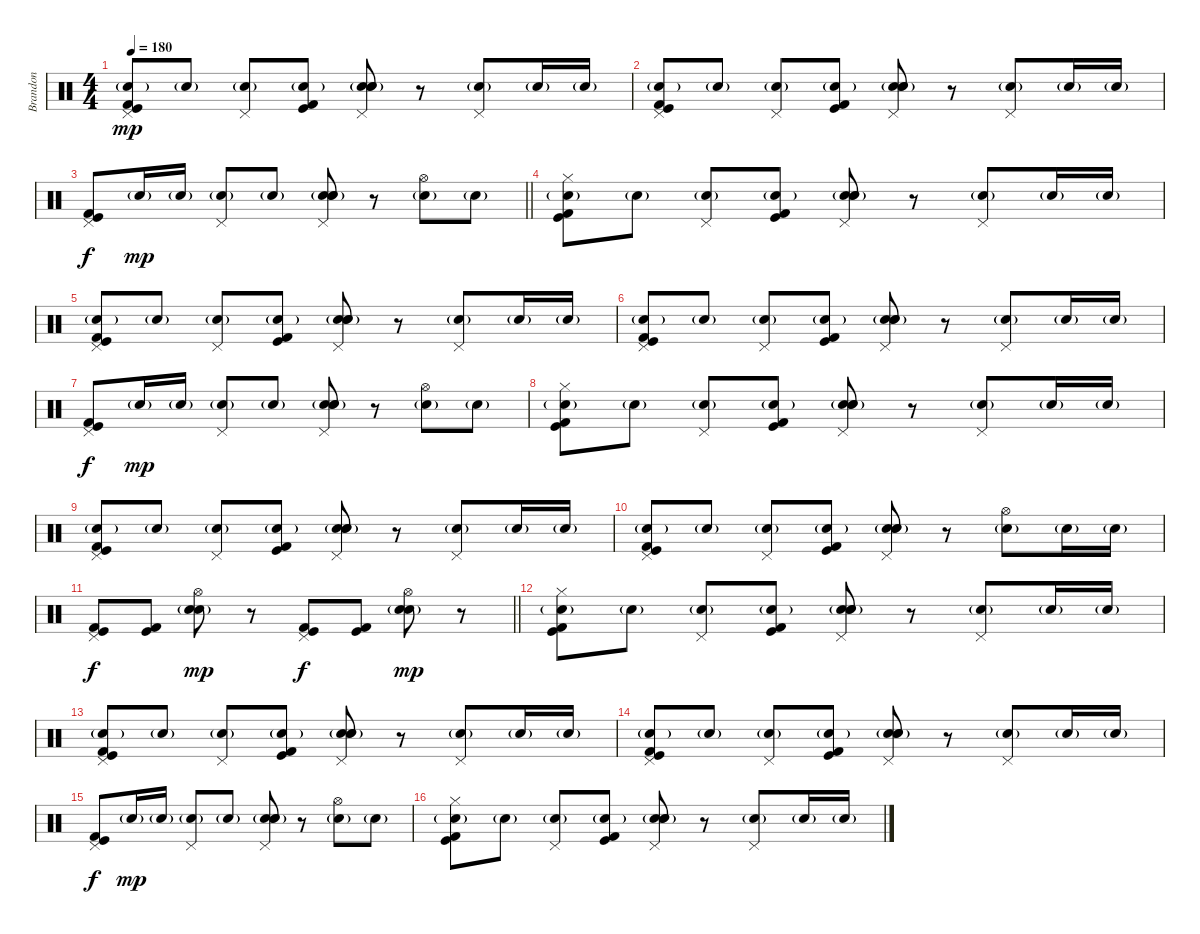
\track ("Brandon" "Brandon") {instrument percussion}
\staff {score}
\articulation defaults
\ts (4 4)
\tempo 180
\clef neutral
\ks c
("Pedal Hi-Hat (hit)" "Snare (hit) 2"{g} "Kick (hit)" "Kick (hit) 2").8{dy mp} "Snare (hit) 2"{g}.8 ("Pedal Hi-Hat (hit)" "Snare (hit) 2"{g}).8 ("Snare (hit) 2"{g} "Kick (hit)" "Kick (hit) 2").8 ("Pedal Hi-Hat (hit)" "Electric Snare (hit)" "Snare (hit) 2" "Snare (hit) 2"{g}).8 r.8 ("Pedal Hi-Hat (hit)" "Snare (hit) 2"{g}).8 "Snare (hit) 2"{g}.16 "Snare (hit) 2"{g}.16 |
("Pedal Hi-Hat (hit)" "Snare (hit) 2"{g} "Kick (hit)" "Kick (hit) 2").8 "Snare (hit) 2"{g}.8 ("Pedal Hi-Hat (hit)" "Snare (hit) 2"{g}).8 ("Snare (hit) 2"{g} "Kick (hit)" "Kick (hit) 2").8 ("Pedal Hi-Hat (hit)" "Electric Snare (hit)" "Snare (hit) 2" "Snare (hit) 2"{g}).8 r.8 ("Pedal Hi-Hat (hit)" "Snare (hit) 2"{g}).8 "Snare (hit) 2"{g}.16 "Snare (hit) 2"{g}.16 |
\barLineRight lightlight
("Pedal Hi-Hat (hit)" "Kick (hit)" "Kick (hit) 2").8{dy f} "Snare (hit) 2"{g}.16{dy mp} "Snare (hit) 2"{g}.16 ("Pedal Hi-Hat (hit)" "Snare (hit) 2"{g}).8 "Snare (hit) 2"{g}.8 ("Pedal Hi-Hat (hit)" "Electric Snare (hit)" "Snare (hit) 2" "Snare (hit) 2"{g}).8 r.8 ("Hi-Hat (open)" "Snare (hit) 2"{g}).8 "Snare (hit) 2"{g}.8 |
("Hi-Hat (closed)" "Snare (hit) 2"{g} "Kick (hit)" "Kick (hit) 2").8 "Snare (hit) 2"{g}.8 ("Pedal Hi-Hat (hit)" "Snare (hit) 2"{g}).8 ("Snare (hit) 2"{g} "Kick (hit)" "Kick (hit) 2").8 ("Pedal Hi-Hat (hit)" "Electric Snare (hit)" "Snare (hit) 2" "Snare (hit) 2"{g}).8 r.8 ("Pedal Hi-Hat (hit)" "Snare (hit) 2"{g}).8 "Snare (hit) 2"{g}.16 "Snare (hit) 2"{g}.16 |
("Pedal Hi-Hat (hit)" "Snare (hit) 2"{g} "Kick (hit)" "Kick (hit) 2").8 "Snare (hit) 2"{g}.8 ("Pedal Hi-Hat (hit)" "Snare (hit) 2"{g}).8 ("Snare (hit) 2"{g} "Kick (hit)" "Kick (hit) 2").8 ("Pedal Hi-Hat (hit)" "Electric Snare (hit)" "Snare (hit) 2" "Snare (hit) 2"{g}).8 r.8 ("Pedal Hi-Hat (hit)" "Snare (hit) 2"{g}).8 "Snare (hit) 2"{g}.16 "Snare (hit) 2"{g}.16 |
("Pedal Hi-Hat (hit)" "Snare (hit) 2"{g} "Kick (hit)" "Kick (hit) 2").8 "Snare (hit) 2"{g}.8 ("Pedal Hi-Hat (hit)" "Snare (hit) 2"{g}).8 ("Snare (hit) 2"{g} "Kick (hit)" "Kick (hit) 2").8 ("Pedal Hi-Hat (hit)" "Electric Snare (hit)" "Snare (hit) 2" "Snare (hit) 2"{g}).8 r.8 ("Pedal Hi-Hat (hit)" "Snare (hit) 2"{g}).8 "Snare (hit) 2"{g}.16 "Snare (hit) 2"{g}.16 |
("Pedal Hi-Hat (hit)" "Kick (hit)" "Kick (hit) 2").8{dy f} "Snare (hit) 2"{g}.16{dy mp} "Snare (hit) 2"{g}.16 ("Pedal Hi-Hat (hit)" "Snare (hit) 2"{g}).8 "Snare (hit) 2"{g}.8 ("Pedal Hi-Hat (hit)" "Electric Snare (hit)" "Snare (hit) 2" "Snare (hit) 2"{g}).8 r.8 ("Hi-Hat (open)" "Snare (hit) 2"{g}).8 "Snare (hit) 2"{g}.8 |
("Hi-Hat (closed)" "Snare (hit) 2"{g} "Kick (hit)" "Kick (hit) 2").8 "Snare (hit) 2"{g}.8 ("Pedal Hi-Hat (hit)" "Snare (hit) 2"{g}).8 ("Snare (hit) 2"{g} "Kick (hit)" "Kick (hit) 2").8 ("Pedal Hi-Hat (hit)" "Electric Snare (hit)" "Snare (hit) 2" "Snare (hit) 2"{g}).8 r.8 ("Pedal Hi-Hat (hit)" "Snare (hit) 2"{g}).8 "Snare (hit) 2"{g}.16 "Snare (hit) 2"{g}.16 |
("Pedal Hi-Hat (hit)" "Snare (hit) 2"{g} "Kick (hit)" "Kick (hit) 2").8 "Snare (hit) 2"{g}.8 ("Pedal Hi-Hat (hit)" "Snare (hit) 2"{g}).8 ("Snare (hit) 2"{g} "Kick (hit)" "Kick (hit) 2").8 ("Pedal Hi-Hat (hit)" "Electric Snare (hit)" "Snare (hit) 2" "Snare (hit) 2"{g}).8 r.8 ("Pedal Hi-Hat (hit)" "Snare (hit) 2"{g}).8 "Snare (hit) 2"{g}.16 "Snare (hit) 2"{g}.16 |
("Pedal Hi-Hat (hit)" "Snare (hit) 2"{g} "Kick (hit)" "Kick (hit) 2").8 "Snare (hit) 2"{g}.8 ("Pedal Hi-Hat (hit)" "Snare (hit) 2"{g}).8 ("Snare (hit) 2"{g} "Kick (hit)" "Kick (hit) 2").8 ("Pedal Hi-Hat (hit)" "Electric Snare (hit)" "Snare (hit) 2" "Snare (hit) 2"{g}).8 r.8 ("Hi-Hat (open)" "Snare (hit) 2"{g}).8 "Snare (hit) 2"{g}.16 "Snare (hit) 2"{g}.16 |
\barLineRight lightlight
("Pedal Hi-Hat (hit)" "Kick (hit) 2" "Kick (hit)").8{dy f} ("Kick (hit) 2" "Kick (hit)").8 ("Hi-Hat (open)" "Snare (hit) 2" "Electric Snare (hit)"{g}).8{dy mp} r.8 ("Pedal Hi-Hat (hit)" "Kick (hit) 2" "Kick (hit)").8{dy f} ("Kick (hit) 2" "Kick (hit)").8 ("Hi-Hat (open)" "Snare (hit) 2" "Electric Snare (hit)"{g}).8{dy mp} r.8 |
("Hi-Hat (closed)" "Snare (hit) 2"{g} "Kick (hit)" "Kick (hit) 2").8 "Snare (hit) 2"{g}.8 ("Pedal Hi-Hat (hit)" "Snare (hit) 2"{g}).8 ("Snare (hit) 2"{g} "Kick (hit)" "Kick (hit) 2").8 ("Pedal Hi-Hat (hit)" "Electric Snare (hit)" "Snare (hit) 2" "Snare (hit) 2"{g}).8 r.8 ("Pedal Hi-Hat (hit)" "Snare (hit) 2"{g}).8 "Snare (hit) 2"{g}.16 "Snare (hit) 2"{g}.16 |
("Pedal Hi-Hat (hit)" "Snare (hit) 2"{g} "Kick (hit)" "Kick (hit) 2").8 "Snare (hit) 2"{g}.8 ("Pedal Hi-Hat (hit)" "Snare (hit) 2"{g}).8 ("Snare (hit) 2"{g} "Kick (hit)" "Kick (hit) 2").8 ("Pedal Hi-Hat (hit)" "Electric Snare (hit)" "Snare (hit) 2" "Snare (hit) 2"{g}).8 r.8 ("Pedal Hi-Hat (hit)" "Snare (hit) 2"{g}).8 "Snare (hit) 2"{g}.16 "Snare (hit) 2"{g}.16 |
("Pedal Hi-Hat (hit)" "Snare (hit) 2"{g} "Kick (hit)" "Kick (hit) 2").8 "Snare (hit) 2"{g}.8 ("Pedal Hi-Hat (hit)" "Snare (hit) 2"{g}).8 ("Snare (hit) 2"{g} "Kick (hit)" "Kick (hit) 2").8 ("Pedal Hi-Hat (hit)" "Electric Snare (hit)" "Snare (hit) 2" "Snare (hit) 2"{g}).8 r.8 ("Pedal Hi-Hat (hit)" "Snare (hit) 2"{g}).8 "Snare (hit) 2"{g}.16 "Snare (hit) 2"{g}.16 |
("Pedal Hi-Hat (hit)" "Kick (hit)" "Kick (hit) 2").8{dy f} "Snare (hit) 2"{g}.16{dy mp} "Snare (hit) 2"{g}.16 ("Pedal Hi-Hat (hit)" "Snare (hit) 2"{g}).8 "Snare (hit) 2"{g}.8 ("Pedal Hi-Hat (hit)" "Electric Snare (hit)" "Snare (hit) 2" "Snare (hit) 2"{g}).8 r.8 ("Hi-Hat (open)" "Snare (hit) 2"{g}).8 "Snare (hit) 2"{g}.8 |
("Hi-Hat (closed)" "Snare (hit) 2"{g} "Kick (hit)" "Kick (hit) 2").8 "Snare (hit) 2"{g}.8 ("Pedal Hi-Hat (hit)" "Snare (hit) 2"{g}).8 ("Snare (hit) 2"{g} "Kick (hit)" "Kick (hit) 2").8 ("Pedal Hi-Hat (hit)" "Electric Snare (hit)" "Snare (hit) 2" "Snare (hit) 2"{g}).8 r.8 ("Pedal Hi-Hat (hit)" "Snare (hit) 2"{g}).8 "Snare (hit) 2"{g}.16 "Snare (hit) 2"{g}.16
